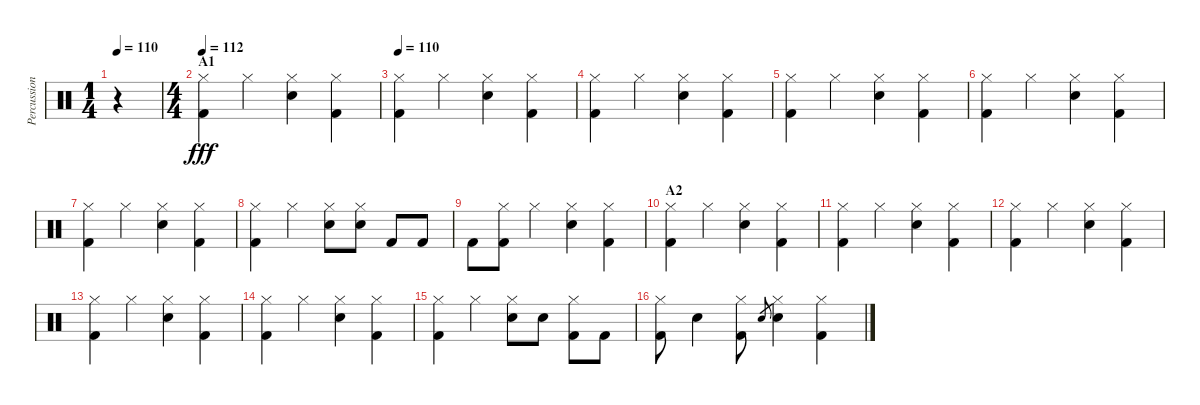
\track ("Percussion" "Percussion") {instrument percussion}
\staff {score}
\articulation defaults
\ts (1 4)
\tempo 110
\tempo 160
\tempo 110
\clef neutral
\ks c
r.4{dy fff} |
\ts (4 4)
\section ("" "A1")
\tempo 112
("Kick (hit) 2" "Hi-Hat (closed)").4 "Hi-Hat (closed)".4 ("Electric Snare (hit)" "Hi-Hat (closed)").4 ("Kick (hit) 2" "Hi-Hat (closed)").4 |
\tempo 110
("Kick (hit) 2" "Hi-Hat (closed)").4 "Hi-Hat (closed)".4 ("Electric Snare (hit)" "Hi-Hat (closed)").4 ("Kick (hit) 2" "Hi-Hat (closed)").4 |
("Kick (hit) 2" "Hi-Hat (closed)").4 "Hi-Hat (closed)".4 ("Electric Snare (hit)" "Hi-Hat (closed)").4 ("Kick (hit) 2" "Hi-Hat (closed)").4 |
("Kick (hit) 2" "Hi-Hat (closed)").4 "Hi-Hat (closed)".4 ("Electric Snare (hit)" "Hi-Hat (closed)").4 ("Kick (hit) 2" "Hi-Hat (closed)").4 |
("Kick (hit) 2" "Hi-Hat (closed)").4 "Hi-Hat (closed)".4 ("Electric Snare (hit)" "Hi-Hat (closed)").4 ("Kick (hit) 2" "Hi-Hat (closed)").4 |
("Kick (hit) 2" "Hi-Hat (closed)").4 "Hi-Hat (closed)".4 ("Electric Snare (hit)" "Hi-Hat (closed)").4 ("Kick (hit) 2" "Hi-Hat (closed)").4 |
("Kick (hit) 2" "Hi-Hat (closed)").4 "Hi-Hat (closed)".4 ("Electric Snare (hit)" "Hi-Hat (closed)").8 ("Electric Snare (hit)" "Hi-Hat (closed)").8 "Kick (hit) 2".8 "Kick (hit) 2".8 |
"Kick (hit) 2".8 ("Kick (hit) 2" "Hi-Hat (closed)").8 "Hi-Hat (closed)".4 ("Electric Snare (hit)" "Hi-Hat (closed)").4 ("Kick (hit) 2" "Hi-Hat (closed)").4 |
\section ("" "A2")
("Kick (hit) 2" "Hi-Hat (closed)").4 "Hi-Hat (closed)".4 ("Electric Snare (hit)" "Hi-Hat (closed)").4 ("Kick (hit) 2" "Hi-Hat (closed)").4 |
("Kick (hit) 2" "Hi-Hat (closed)").4 "Hi-Hat (closed)".4 ("Electric Snare (hit)" "Hi-Hat (closed)").4 ("Kick (hit) 2" "Hi-Hat (closed)").4 |
("Kick (hit) 2" "Hi-Hat (closed)").4 "Hi-Hat (closed)".4 ("Electric Snare (hit)" "Hi-Hat (closed)").4 ("Kick (hit) 2" "Hi-Hat (closed)").4 |
("Kick (hit) 2" "Hi-Hat (closed)").4 "Hi-Hat (closed)".4 ("Electric Snare (hit)" "Hi-Hat (closed)").4 ("Kick (hit) 2" "Hi-Hat (closed)").4 |
("Kick (hit) 2" "Hi-Hat (closed)").4 "Hi-Hat (closed)".4 ("Electric Snare (hit)" "Hi-Hat (closed)").4 ("Kick (hit) 2" "Hi-Hat (closed)").4 |
("Kick (hit) 2" "Hi-Hat (closed)").4 "Hi-Hat (closed)".4 ("Electric Snare (hit)" "Hi-Hat (closed)").8 "Electric Snare (hit)".8 ("Kick (hit) 2" "Hi-Hat (closed)").8 "Kick (hit) 2".8 |
("Kick (hit) 2" "Hi-Hat (closed)").8 "Electric Snare (hit)".4 ("Kick (hit) 2" "Hi-Hat (closed)").8 "Electric Snare (hit)".8{gr} ("Electric Snare (hit)" "Hi-Hat (closed)").4 ("Kick (hit) 2" "Hi-Hat (closed)").4
